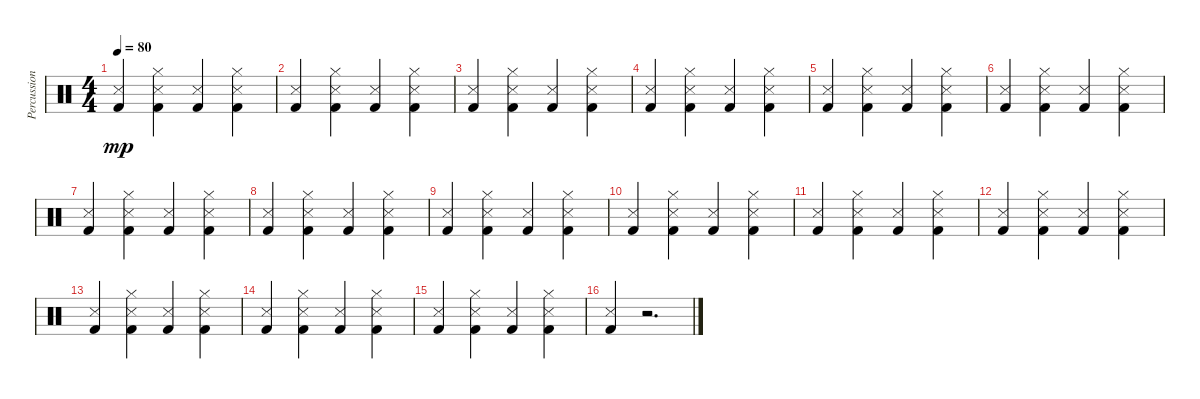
\track ("Percussion" "Percussion") {instrument percussion}
\staff {score}
\articulation defaults
\ts (4 4)
\tempo 80
\clef neutral
\ks c
("Snare (side stick) 3" "Kick (hit) 2").4{dy mp} ("Snare (side stick) 3" "Hi-Hat (closed)" "Kick (hit) 2").4 ("Snare (side stick) 3" "Kick (hit) 2").4 ("Snare (side stick) 3" "Hi-Hat (closed)" "Kick (hit) 2").4 |
("Snare (side stick) 3" "Kick (hit) 2").4 ("Snare (side stick) 3" "Hi-Hat (closed)" "Kick (hit) 2").4 ("Snare (side stick) 3" "Kick (hit) 2").4 ("Snare (side stick) 3" "Hi-Hat (closed)" "Kick (hit) 2").4 |
("Snare (side stick) 3" "Kick (hit) 2").4 ("Snare (side stick) 3" "Hi-Hat (closed)" "Kick (hit) 2").4 ("Snare (side stick) 3" "Kick (hit) 2").4 ("Snare (side stick) 3" "Hi-Hat (closed)" "Kick (hit) 2").4 |
("Snare (side stick) 3" "Kick (hit) 2").4 ("Snare (side stick) 3" "Hi-Hat (closed)" "Kick (hit) 2").4 ("Snare (side stick) 3" "Kick (hit) 2").4 ("Snare (side stick) 3" "Hi-Hat (closed)" "Kick (hit) 2").4 |
("Snare (side stick) 3" "Kick (hit) 2").4 ("Snare (side stick) 3" "Hi-Hat (closed)" "Kick (hit) 2").4 ("Snare (side stick) 3" "Kick (hit) 2").4 ("Snare (side stick) 3" "Hi-Hat (closed)" "Kick (hit) 2").4 |
("Snare (side stick) 3" "Kick (hit) 2").4 ("Snare (side stick) 3" "Hi-Hat (closed)" "Kick (hit) 2").4 ("Snare (side stick) 3" "Kick (hit) 2").4 ("Snare (side stick) 3" "Hi-Hat (closed)" "Kick (hit) 2").4 |
("Snare (side stick) 3" "Kick (hit) 2").4 ("Snare (side stick) 3" "Hi-Hat (closed)" "Kick (hit) 2").4 ("Snare (side stick) 3" "Kick (hit) 2").4 ("Snare (side stick) 3" "Hi-Hat (closed)" "Kick (hit) 2").4 |
("Snare (side stick) 3" "Kick (hit) 2").4 ("Snare (side stick) 3" "Hi-Hat (closed)" "Kick (hit) 2").4 ("Snare (side stick) 3" "Kick (hit) 2").4 ("Snare (side stick) 3" "Hi-Hat (closed)" "Kick (hit) 2").4 |
("Snare (side stick) 3" "Kick (hit) 2").4 ("Snare (side stick) 3" "Hi-Hat (closed)" "Kick (hit) 2").4 ("Snare (side stick) 3" "Kick (hit) 2").4 ("Snare (side stick) 3" "Hi-Hat (closed)" "Kick (hit) 2").4 |
("Snare (side stick) 3" "Kick (hit) 2").4 ("Snare (side stick) 3" "Hi-Hat (closed)" "Kick (hit) 2").4 ("Snare (side stick) 3" "Kick (hit) 2").4 ("Snare (side stick) 3" "Hi-Hat (closed)" "Kick (hit) 2").4 |
("Snare (side stick) 3" "Kick (hit) 2").4 ("Snare (side stick) 3" "Hi-Hat (closed)" "Kick (hit) 2").4 ("Snare (side stick) 3" "Kick (hit) 2").4 ("Snare (side stick) 3" "Hi-Hat (closed)" "Kick (hit) 2").4 |
("Snare (side stick) 3" "Kick (hit) 2").4 ("Snare (side stick) 3" "Hi-Hat (closed)" "Kick (hit) 2").4 ("Snare (side stick) 3" "Kick (hit) 2").4 ("Snare (side stick) 3" "Hi-Hat (closed)" "Kick (hit) 2").4 |
("Snare (side stick) 3" "Kick (hit) 2").4 ("Snare (side stick) 3" "Hi-Hat (closed)" "Kick (hit) 2").4 ("Snare (side stick) 3" "Kick (hit) 2").4 ("Snare (side stick) 3" "Hi-Hat (closed)" "Kick (hit) 2").4 |
("Snare (side stick) 3" "Kick (hit) 2").4 ("Snare (side stick) 3" "Hi-Hat (closed)" "Kick (hit) 2").4 ("Snare (side stick) 3" "Kick (hit) 2").4 ("Snare (side stick) 3" "Hi-Hat (closed)" "Kick (hit) 2").4 |
("Snare (side stick) 3" "Kick (hit) 2").4 ("Snare (side stick) 3" "Hi-Hat (closed)" "Kick (hit) 2").4 ("Snare (side stick) 3" "Kick (hit) 2").4 ("Snare (side stick) 3" "Hi-Hat (closed)" "Kick (hit) 2").4 |
("Snare (side stick) 3" "Kick (hit) 2").4 r.2{d}
